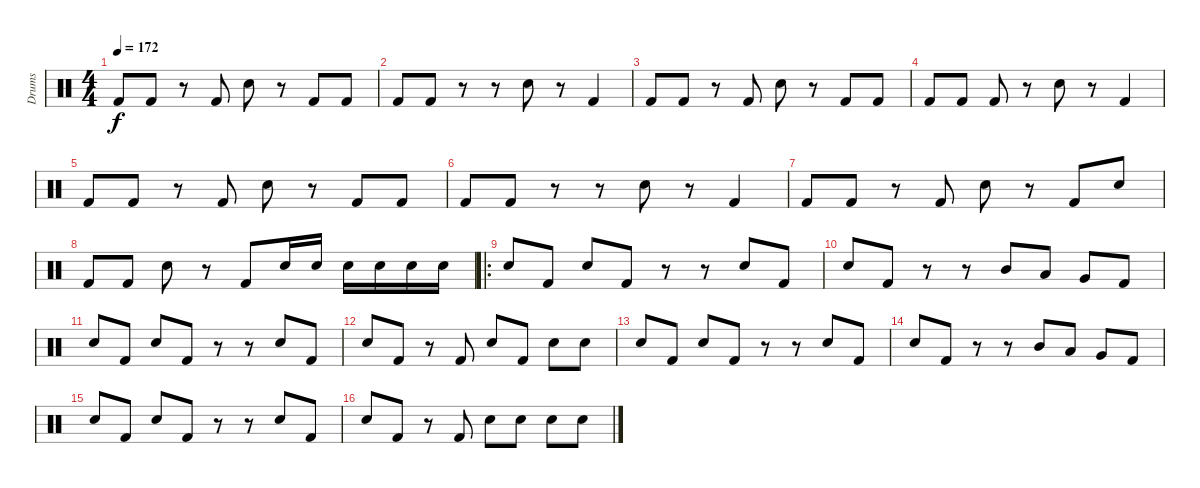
\track ("Drums" "Drums") {instrument percussion}
\staff {score}
\articulation defaults
\ts (4 4)
\tempo 172
\clef neutral
\ks c "Kick (hit) 2".8{dy f} "Kick (hit) 2".8
r.8 "Kick (hit) 2".8 "Snare (hit) 2".8 r.8 "Kick (hit) 2".8 "Kick (hit) 2".8 |
"Kick (hit) 2".8 "Kick (hit) 2".8 r.8 r.8 "Snare (hit) 2".8 r.8 "Kick (hit) 2".4 |
"Kick (hit) 2".8 "Kick (hit) 2".8 r.8 "Kick (hit) 2".8 "Snare (hit) 2".8 r.8 "Kick (hit) 2".8 "Kick (hit) 2".8 |
"Kick (hit) 2".8 "Kick (hit) 2".8 "Kick (hit) 2".8 r.8 "Snare (hit) 2".8 r.8 "Kick (hit) 2".4 |
"Kick (hit) 2".8 "Kick (hit) 2".8 r.8 "Kick (hit) 2".8 "Snare (hit) 2".8 r.8 "Kick (hit) 2".8 "Kick (hit) 2".8 |
"Kick (hit) 2".8 "Kick (hit) 2".8 r.8 r.8 "Snare (hit) 2".8 r.8 "Kick (hit) 2".4 |
"Kick (hit) 2".8 "Kick (hit) 2".8 r.8 "Kick (hit) 2".8 "Snare (hit) 2".8 r.8 "Kick (hit) 2".8 "Snare (hit) 2".8 |
"Kick (hit) 2".8 "Kick (hit) 2".8 "Snare (hit) 2".8 r.8 "Kick (hit) 2".8 "Snare (hit) 2".16 "Snare (hit) 2".16 "Snare (hit) 2".16 "Snare (hit) 2".16 "Snare (hit) 2".16 "Snare (hit) 2".16 |
\ro "Snare (hit) 2".8 "Kick (hit) 2".8 "Snare (hit) 2".8 "Kick (hit) 2".8
r.8 r.8 "Snare (hit) 2".8 "Kick (hit) 2".8 |
"Snare (hit) 2".8 "Kick (hit) 2".8 r.8 r.8 "Mid Tom (hit)".8 "Low Tom (hit)".8 "Very Low Tom (hit)".8 "Kick (hit) 2".8 |
"Snare (hit) 2".8 "Kick (hit) 2".8 "Snare (hit) 2".8 "Kick (hit) 2".8 r.8 r.8 "Snare (hit) 2".8 "Kick (hit) 2".8 |
"Snare (hit) 2".8 "Kick (hit) 2".8 r.8 "Kick (hit) 2".8 "Snare (hit) 2".8 "Kick (hit) 2".8 "Snare (hit) 2".8 "Snare (hit) 2".8 |
"Snare (hit) 2".8 "Kick (hit) 2".8 "Snare (hit) 2".8 "Kick (hit) 2".8 r.8 r.8 "Snare (hit) 2".8 "Kick (hit) 2".8 |
"Snare (hit) 2".8 "Kick (hit) 2".8 r.8 r.8 "Mid Tom (hit)".8 "Low Tom (hit)".8 "Very Low Tom (hit)".8 "Kick (hit) 2".8 |
"Snare (hit) 2".8 "Kick (hit) 2".8 "Snare (hit) 2".8 "Kick (hit) 2".8 r.8 r.8 "Snare (hit) 2".8 "Kick (hit) 2".8 |
"Snare (hit) 2".8 "Kick (hit) 2".8 r.8 "Kick (hit) 2".8 "Snare (hit) 2".8 "Snare (hit) 2".8 "Snare (hit) 2".8 "Snare (hit) 2".8
